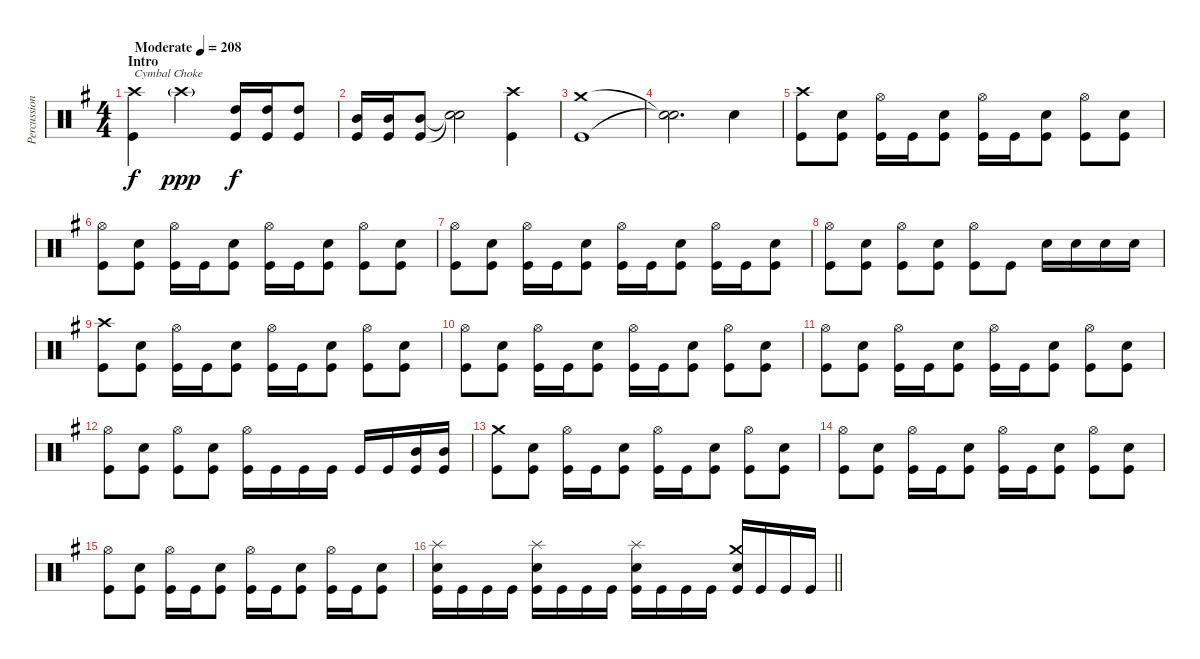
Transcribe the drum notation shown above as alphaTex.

\track ("Percussion" "Percussion") {instrument percussion}
\staff {score}
\articulation defaults
\ts (4 4)
\section ("" "Intro")
\tempo (208 "Moderate")
\clef neutral
\ks g
("Crash high (hit)" "Kick (hit)").4{txt "Cymbal Choke" dy f} "Crash high (hit)"{g}.2{dy ppp volume 0} ("High Tom (hit)" "Kick (hit)").16{dy f volume 10} ("High Tom (hit)" "Kick (hit)").16 ("High Tom (hit)" "Kick (hit)").8 |
("Mid Tom (hit)" "Kick (hit)").16 ("Mid Tom (hit)" "Kick (hit)").16 ("Mid Tom (hit)" "Kick (hit)").8 ("Snare (hit)"{t} "Snare (hit)"{t}).2 ("Crash high (hit)" "Kick (hit)").4 |
("Crash medium (hit)" "Kick (hit)").1 |
("Snare (hit)"{t} "Snare (hit)"{t}).2{d} "Electric Snare (hit)".4 |
("Crash high (hit)" "Kick (hit)").8 ("Electric Snare (hit)" "Kick (hit)").8 ("Hi-Hat (open)" "Kick (hit)").16 "Kick (hit)".16 ("Electric Snare (hit)" "Kick (hit)").8 ("Hi-Hat (open)" "Kick (hit)").16 "Kick (hit)".16 ("Electric Snare (hit)" "Kick (hit)").8 ("Hi-Hat (open)" "Kick (hit)").8 ("Electric Snare (hit)" "Kick (hit)").8 |
("Hi-Hat (open)" "Kick (hit)").8 ("Electric Snare (hit)" "Kick (hit)").8 ("Hi-Hat (open)" "Kick (hit)").16 "Kick (hit)".16 ("Electric Snare (hit)" "Kick (hit)").8 ("Hi-Hat (open)" "Kick (hit)").16 "Kick (hit)".16 ("Electric Snare (hit)" "Kick (hit)").8 ("Hi-Hat (open)" "Kick (hit)").8 ("Electric Snare (hit)" "Kick (hit)").8 |
("Hi-Hat (open)" "Kick (hit)").8 ("Electric Snare (hit)" "Kick (hit)").8 ("Hi-Hat (open)" "Kick (hit)").16 "Kick (hit)".16 ("Electric Snare (hit)" "Kick (hit)").8 ("Hi-Hat (open)" "Kick (hit)").16 "Kick (hit)".16 ("Electric Snare (hit)" "Kick (hit)").8 ("Hi-Hat (open)" "Kick (hit)").16 "Kick (hit)".16 ("Electric Snare (hit)" "Kick (hit)").8 |
("Hi-Hat (open)" "Kick (hit)").8 ("Electric Snare (hit)" "Kick (hit)").8 ("Hi-Hat (open)" "Kick (hit)").8 ("Electric Snare (hit)" "Kick (hit)").8 ("Hi-Hat (open)" "Kick (hit)").8 "Kick (hit)".8 "Electric Snare (hit)".16 "Electric Snare (hit)".16 "Electric Snare (hit)".16 "Electric Snare (hit)".16 |
("Crash high (hit)" "Kick (hit)").8 ("Electric Snare (hit)" "Kick (hit)").8 ("Hi-Hat (open)" "Kick (hit)").16 "Kick (hit)".16 ("Electric Snare (hit)" "Kick (hit)").8 ("Hi-Hat (open)" "Kick (hit)").16 "Kick (hit)".16 ("Electric Snare (hit)" "Kick (hit)").8 ("Hi-Hat (open)" "Kick (hit)").8 ("Electric Snare (hit)" "Kick (hit)").8 |
("Hi-Hat (open)" "Kick (hit)").8 ("Electric Snare (hit)" "Kick (hit)").8 ("Hi-Hat (open)" "Kick (hit)").16 "Kick (hit)".16 ("Electric Snare (hit)" "Kick (hit)").8 ("Hi-Hat (open)" "Kick (hit)").16 "Kick (hit)".16 ("Electric Snare (hit)" "Kick (hit)").8 ("Hi-Hat (open)" "Kick (hit)").8 ("Electric Snare (hit)" "Kick (hit)").8 |
("Hi-Hat (open)" "Kick (hit)").8 ("Electric Snare (hit)" "Kick (hit)").8 ("Hi-Hat (open)" "Kick (hit)").16 "Kick (hit)".16 ("Electric Snare (hit)" "Kick (hit)").8 ("Hi-Hat (open)" "Kick (hit)").16 "Kick (hit)".16 ("Electric Snare (hit)" "Kick (hit)").8 ("Hi-Hat (open)" "Kick (hit)").8 ("Electric Snare (hit)" "Kick (hit)").8 |
("Hi-Hat (open)" "Kick (hit)").8 ("Electric Snare (hit)" "Kick (hit)").8 ("Hi-Hat (open)" "Kick (hit)").8 ("Electric Snare (hit)" "Kick (hit)").8 ("Hi-Hat (open)" "Kick (hit)").16 "Kick (hit)".16 "Kick (hit)".16 "Kick (hit)".16 "Kick (hit)".16 "Kick (hit)".16 ("Mid Tom (hit)" "Kick (hit)").16 ("Mid Tom (hit)" "Kick (hit)").16 |
("Crash medium (hit)" "Kick (hit)").8 ("Electric Snare (hit)" "Kick (hit)").8 ("Hi-Hat (open)" "Kick (hit)").16 "Kick (hit)".16 ("Electric Snare (hit)" "Kick (hit)").8 ("Hi-Hat (open)" "Kick (hit)").16 "Kick (hit)".16 ("Electric Snare (hit)" "Kick (hit)").8 ("Hi-Hat (open)" "Kick (hit)").8 ("Electric Snare (hit)" "Kick (hit)").8 |
("Hi-Hat (open)" "Kick (hit)").8 ("Electric Snare (hit)" "Kick (hit)").8 ("Hi-Hat (open)" "Kick (hit)").16 "Kick (hit)".16 ("Electric Snare (hit)" "Kick (hit)").8 ("Hi-Hat (open)" "Kick (hit)").16 "Kick (hit)".16 ("Electric Snare (hit)" "Kick (hit)").8 ("Hi-Hat (open)" "Kick (hit)").8 ("Electric Snare (hit)" "Kick (hit)").8 |
("Hi-Hat (open)" "Kick (hit)").8 ("Electric Snare (hit)" "Kick (hit)").8 ("Hi-Hat (open)" "Kick (hit)").16 "Kick (hit)".16 ("Electric Snare (hit)" "Kick (hit)").8 ("Hi-Hat (open)" "Kick (hit)").16 "Kick (hit)".16 ("Electric Snare (hit)" "Kick (hit)").8 ("Hi-Hat (open)" "Kick (hit)").16 "Kick (hit)".16 ("Electric Snare (hit)" "Kick (hit)").8 |
\barLineRight lightlight
("Splash (hit)" "Electric Snare (hit)" "Kick (hit)").16 "Kick (hit)".16 "Kick (hit)".16 "Kick (hit)".16 ("Splash (hit)" "Electric Snare (hit)" "Kick (hit)").16 "Kick (hit)".16 "Kick (hit)".16 "Kick (hit)".16 ("Splash (hit)" "Electric Snare (hit)" "Kick (hit)").16 "Kick (hit)".16 "Kick (hit)".16 "Kick (hit)".16 ("Crash medium (hit)" "Electric Snare (hit)" "Kick (hit)").16 "Kick (hit)".16 "Kick (hit)".16 "Kick (hit)".16
